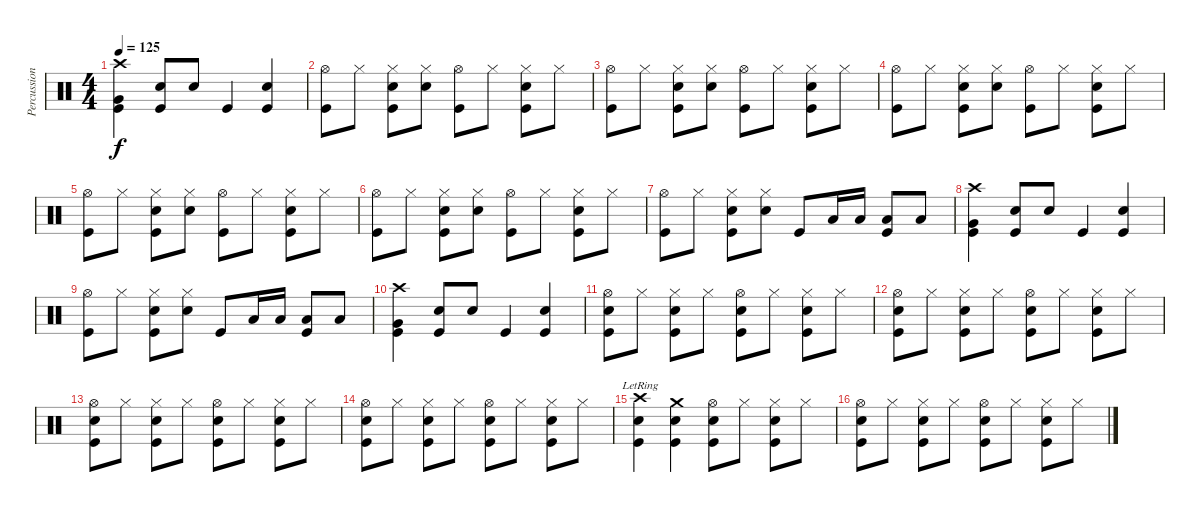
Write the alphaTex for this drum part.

\track ("Percussion" "Percussion") {instrument percussion}
\staff {score}
\articulation defaults
\ts (4 4)
\tempo 125
\clef neutral
\ks c
("Crash high (hit)" "Very Low Tom (hit)" "Kick (hit)").4{dy f} ("Snare (hit) 2" "Kick (hit)").8 "Snare (hit) 2".8 "Kick (hit)".4 ("Snare (hit) 2" "Kick (hit)").4 |
("Hi-Hat (open)" "Kick (hit)").8 "Hi-Hat (closed)".8 ("Hi-Hat (closed)" "Snare (hit) 2" "Kick (hit)").8 ("Hi-Hat (closed)" "Snare (hit) 2").8 ("Hi-Hat (open)" "Kick (hit)").8 "Hi-Hat (closed)".8 ("Hi-Hat (closed)" "Snare (hit) 2" "Kick (hit)").8 "Hi-Hat (closed)".8 |
("Hi-Hat (open)" "Kick (hit)").8 "Hi-Hat (closed)".8 ("Hi-Hat (closed)" "Snare (hit) 2" "Kick (hit)").8 ("Hi-Hat (closed)" "Snare (hit) 2").8 ("Hi-Hat (open)" "Kick (hit)").8 "Hi-Hat (closed)".8 ("Hi-Hat (closed)" "Snare (hit) 2" "Kick (hit)").8 "Hi-Hat (closed)".8 |
("Hi-Hat (open)" "Kick (hit)").8 "Hi-Hat (closed)".8 ("Hi-Hat (closed)" "Snare (hit) 2" "Kick (hit)").8 ("Hi-Hat (closed)" "Snare (hit) 2").8 ("Hi-Hat (open)" "Kick (hit)").8 "Hi-Hat (closed)".8 ("Hi-Hat (closed)" "Snare (hit) 2" "Kick (hit)").8 "Hi-Hat (closed)".8 |
("Hi-Hat (open)" "Kick (hit)").8 "Hi-Hat (closed)".8 ("Hi-Hat (closed)" "Snare (hit) 2" "Kick (hit)").8 ("Hi-Hat (closed)" "Snare (hit) 2").8 ("Hi-Hat (open)" "Kick (hit)").8 "Hi-Hat (closed)".8 ("Hi-Hat (closed)" "Snare (hit) 2" "Kick (hit)").8 "Hi-Hat (closed)".8 |
("Hi-Hat (open)" "Kick (hit)").8 "Hi-Hat (closed)".8 ("Hi-Hat (closed)" "Snare (hit) 2" "Kick (hit)").8 ("Hi-Hat (closed)" "Snare (hit) 2").8 ("Hi-Hat (open)" "Kick (hit)").8 "Hi-Hat (closed)".8 ("Hi-Hat (closed)" "Snare (hit) 2" "Kick (hit)").8 "Hi-Hat (closed)".8 |
("Hi-Hat (open)" "Kick (hit)").8 "Hi-Hat (closed)".8 ("Hi-Hat (closed)" "Snare (hit) 2" "Kick (hit)").8 ("Hi-Hat (closed)" "Snare (hit) 2").8 "Kick (hit)".8 "Low Floor Tom (hit)".16 "Low Floor Tom (hit)".16 ("Low Floor Tom (hit)" "Kick (hit)").8 "Low Floor Tom (hit)".8 |
("Crash high (hit)" "Very Low Tom (hit)" "Kick (hit)").4 ("Snare (hit) 2" "Kick (hit)").8 "Snare (hit) 2".8 "Kick (hit)".4 ("Snare (hit) 2" "Kick (hit)").4 |
("Hi-Hat (open)" "Kick (hit)").8 "Hi-Hat (closed)".8 ("Hi-Hat (closed)" "Snare (hit) 2" "Kick (hit)").8 ("Hi-Hat (closed)" "Snare (hit) 2").8 "Kick (hit)".8 "Low Floor Tom (hit)".16 "Low Floor Tom (hit)".16 ("Low Floor Tom (hit)" "Kick (hit)").8 "Low Floor Tom (hit)".8 |
("Crash high (hit)" "Very Low Tom (hit)" "Kick (hit)").4 ("Snare (hit) 2" "Kick (hit)").8 "Snare (hit) 2".8 "Kick (hit)".4 ("Snare (hit) 2" "Kick (hit)").4 |
("Hi-Hat (open)" "Snare (hit) 2" "Kick (hit)").8 "Hi-Hat (closed)".8 ("Hi-Hat (closed)" "Snare (hit) 2" "Kick (hit)").8 "Hi-Hat (closed)".8 ("Hi-Hat (open)" "Snare (hit) 2" "Kick (hit)").8 "Hi-Hat (closed)".8 ("Hi-Hat (closed)" "Snare (hit) 2" "Kick (hit)").8 "Hi-Hat (closed)".8 |
("Hi-Hat (open)" "Snare (hit) 2" "Kick (hit)").8 "Hi-Hat (closed)".8 ("Hi-Hat (closed)" "Snare (hit) 2" "Kick (hit)").8 "Hi-Hat (closed)".8 ("Hi-Hat (open)" "Snare (hit) 2" "Kick (hit)").8 "Hi-Hat (closed)".8 ("Hi-Hat (closed)" "Snare (hit) 2" "Kick (hit)").8 "Hi-Hat (closed)".8 |
("Hi-Hat (open)" "Snare (hit) 2" "Kick (hit)").8 "Hi-Hat (closed)".8 ("Hi-Hat (closed)" "Snare (hit) 2" "Kick (hit)").8 "Hi-Hat (closed)".8 ("Hi-Hat (open)" "Snare (hit) 2" "Kick (hit)").8 "Hi-Hat (closed)".8 ("Hi-Hat (closed)" "Snare (hit) 2" "Kick (hit)").8 "Hi-Hat (closed)".8 |
("Hi-Hat (open)" "Snare (hit) 2" "Kick (hit)").8 "Hi-Hat (closed)".8 ("Hi-Hat (closed)" "Snare (hit) 2" "Kick (hit)").8 "Hi-Hat (closed)".8 ("Hi-Hat (open)" "Snare (hit) 2" "Kick (hit)").8 "Hi-Hat (closed)".8 ("Hi-Hat (closed)" "Snare (hit) 2" "Kick (hit)").8 "Hi-Hat (closed)".8 |
("Crash high (hit)"{lr} "Snare (hit) 2" "Kick (hit)").4 ("Crash medium (hit)" "Snare (hit) 2" "Kick (hit)").4 ("Hi-Hat (open)" "Snare (hit) 2" "Kick (hit)").8 "Hi-Hat (closed)".8 ("Hi-Hat (closed)" "Snare (hit) 2" "Kick (hit)").8 "Hi-Hat (closed)".8 |
("Hi-Hat (open)" "Snare (hit) 2" "Kick (hit)").8 "Hi-Hat (closed)".8 ("Hi-Hat (closed)" "Snare (hit) 2" "Kick (hit)").8 "Hi-Hat (closed)".8 ("Hi-Hat (open)" "Snare (hit) 2" "Kick (hit)").8 "Hi-Hat (closed)".8 ("Hi-Hat (closed)" "Snare (hit) 2" "Kick (hit)").8 "Hi-Hat (closed)".8
